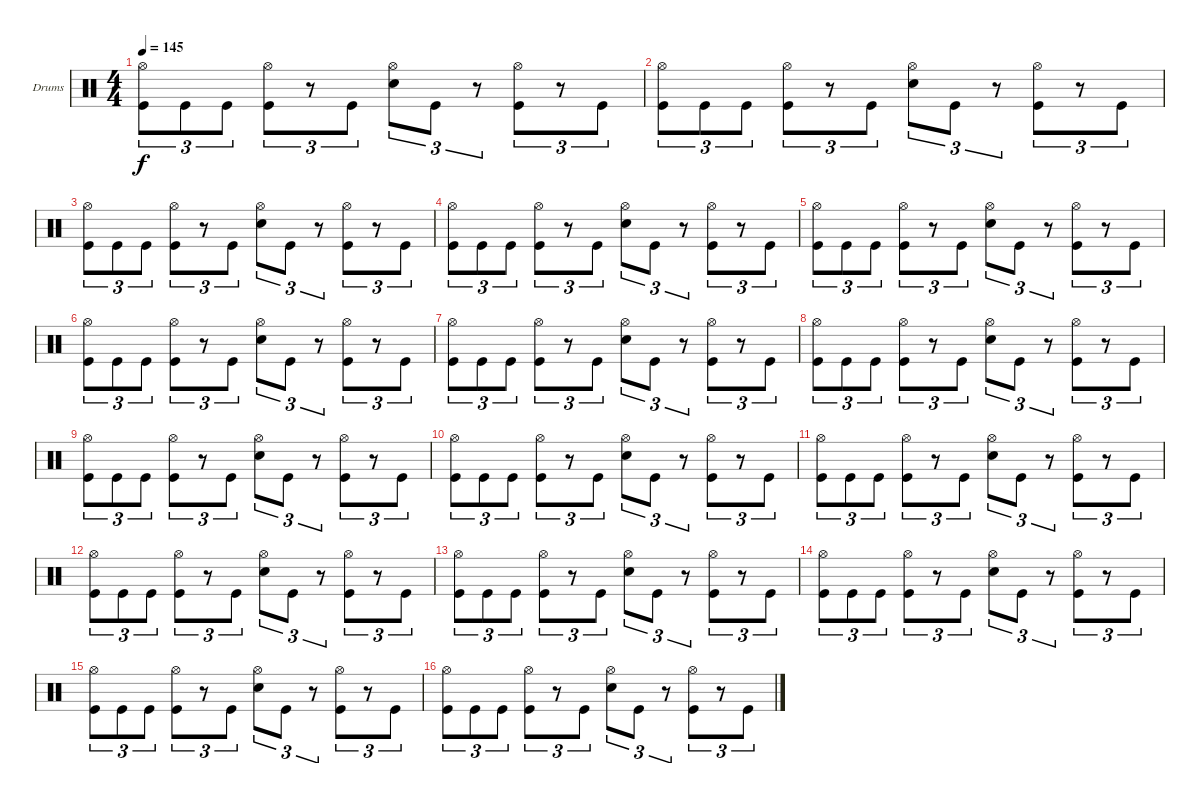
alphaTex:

\bracketExtendMode groupsimilarinstruments
\firstSystemTrackNameOrientation horizontal
\otherSystemsTrackNameOrientation horizontal
\track ("FREDRIK ANDERSSON" "Drums") {instrument percussion}
\staff {score}
\articulation defaults
\ts (4 4)
\tempo 145
\clef neutral
\ks c
("Hi-Hat (open)" "Kick (hit)").8{tu (3 2) dy f} "Kick (hit)".8{tu (3 2)} "Kick (hit)".8{tu (3 2)} ("Hi-Hat (open)" "Kick (hit)").8{tu (3 2)} r.8{tu (3 2)} "Kick (hit)".8{tu (3 2)} ("Hi-Hat (open)" "Snare (hit) 2").8{tu (3 2)} "Kick (hit)".8{tu (3 2)} r.8{tu (3 2)} ("Hi-Hat (open)" "Kick (hit)").8{tu (3 2)} r.8{tu (3 2)} "Kick (hit)".8{tu (3 2)} |
("Hi-Hat (open)" "Kick (hit)").8{tu (3 2)} "Kick (hit)".8{tu (3 2)} "Kick (hit)".8{tu (3 2)} ("Hi-Hat (open)" "Kick (hit)").8{tu (3 2)} r.8{tu (3 2)} "Kick (hit)".8{tu (3 2)} ("Hi-Hat (open)" "Snare (hit) 2").8{tu (3 2)} "Kick (hit)".8{tu (3 2)} r.8{tu (3 2)} ("Hi-Hat (open)" "Kick (hit)").8{tu (3 2)} r.8{tu (3 2)} "Kick (hit)".8{tu (3 2)} |
("Hi-Hat (open)" "Kick (hit)").8{tu (3 2)} "Kick (hit)".8{tu (3 2)} "Kick (hit)".8{tu (3 2)} ("Hi-Hat (open)" "Kick (hit)").8{tu (3 2)} r.8{tu (3 2)} "Kick (hit)".8{tu (3 2)} ("Hi-Hat (open)" "Snare (hit) 2").8{tu (3 2)} "Kick (hit)".8{tu (3 2)} r.8{tu (3 2)} ("Hi-Hat (open)" "Kick (hit)").8{tu (3 2)} r.8{tu (3 2)} "Kick (hit)".8{tu (3 2)} |
("Hi-Hat (open)" "Kick (hit)").8{tu (3 2)} "Kick (hit)".8{tu (3 2)} "Kick (hit)".8{tu (3 2)} ("Hi-Hat (open)" "Kick (hit)").8{tu (3 2)} r.8{tu (3 2)} "Kick (hit)".8{tu (3 2)} ("Hi-Hat (open)" "Snare (hit) 2").8{tu (3 2)} "Kick (hit)".8{tu (3 2)} r.8{tu (3 2)} ("Hi-Hat (open)" "Kick (hit)").8{tu (3 2)} r.8{tu (3 2)} "Kick (hit)".8{tu (3 2)} |
("Hi-Hat (open)" "Kick (hit)").8{tu (3 2)} "Kick (hit)".8{tu (3 2)} "Kick (hit)".8{tu (3 2)} ("Hi-Hat (open)" "Kick (hit)").8{tu (3 2)} r.8{tu (3 2)} "Kick (hit)".8{tu (3 2)} ("Hi-Hat (open)" "Snare (hit) 2").8{tu (3 2)} "Kick (hit)".8{tu (3 2)} r.8{tu (3 2)} ("Hi-Hat (open)" "Kick (hit)").8{tu (3 2)} r.8{tu (3 2)} "Kick (hit)".8{tu (3 2)} |
("Hi-Hat (open)" "Kick (hit)").8{tu (3 2)} "Kick (hit)".8{tu (3 2)} "Kick (hit)".8{tu (3 2)} ("Hi-Hat (open)" "Kick (hit)").8{tu (3 2)} r.8{tu (3 2)} "Kick (hit)".8{tu (3 2)} ("Hi-Hat (open)" "Snare (hit) 2").8{tu (3 2)} "Kick (hit)".8{tu (3 2)} r.8{tu (3 2)} ("Hi-Hat (open)" "Kick (hit)").8{tu (3 2)} r.8{tu (3 2)} "Kick (hit)".8{tu (3 2)} |
("Hi-Hat (open)" "Kick (hit)").8{tu (3 2)} "Kick (hit)".8{tu (3 2)} "Kick (hit)".8{tu (3 2)} ("Hi-Hat (open)" "Kick (hit)").8{tu (3 2)} r.8{tu (3 2)} "Kick (hit)".8{tu (3 2)} ("Hi-Hat (open)" "Snare (hit) 2").8{tu (3 2)} "Kick (hit)".8{tu (3 2)} r.8{tu (3 2)} ("Hi-Hat (open)" "Kick (hit)").8{tu (3 2)} r.8{tu (3 2)} "Kick (hit)".8{tu (3 2)} |
("Hi-Hat (open)" "Kick (hit)").8{tu (3 2)} "Kick (hit)".8{tu (3 2)} "Kick (hit)".8{tu (3 2)} ("Hi-Hat (open)" "Kick (hit)").8{tu (3 2)} r.8{tu (3 2)} "Kick (hit)".8{tu (3 2)} ("Hi-Hat (open)" "Snare (hit) 2").8{tu (3 2)} "Kick (hit)".8{tu (3 2)} r.8{tu (3 2)} ("Hi-Hat (open)" "Kick (hit)").8{tu (3 2)} r.8{tu (3 2)} "Kick (hit)".8{tu (3 2)} |
("Hi-Hat (open)" "Kick (hit)").8{tu (3 2)} "Kick (hit)".8{tu (3 2)} "Kick (hit)".8{tu (3 2)} ("Hi-Hat (open)" "Kick (hit)").8{tu (3 2)} r.8{tu (3 2)} "Kick (hit)".8{tu (3 2)} ("Hi-Hat (open)" "Snare (hit) 2").8{tu (3 2)} "Kick (hit)".8{tu (3 2)} r.8{tu (3 2)} ("Hi-Hat (open)" "Kick (hit)").8{tu (3 2)} r.8{tu (3 2)} "Kick (hit)".8{tu (3 2)} |
("Hi-Hat (open)" "Kick (hit)").8{tu (3 2)} "Kick (hit)".8{tu (3 2)} "Kick (hit)".8{tu (3 2)} ("Hi-Hat (open)" "Kick (hit)").8{tu (3 2)} r.8{tu (3 2)} "Kick (hit)".8{tu (3 2)} ("Hi-Hat (open)" "Snare (hit) 2").8{tu (3 2)} "Kick (hit)".8{tu (3 2)} r.8{tu (3 2)} ("Hi-Hat (open)" "Kick (hit)").8{tu (3 2)} r.8{tu (3 2)} "Kick (hit)".8{tu (3 2)} |
("Hi-Hat (open)" "Kick (hit)").8{tu (3 2)} "Kick (hit)".8{tu (3 2)} "Kick (hit)".8{tu (3 2)} ("Hi-Hat (open)" "Kick (hit)").8{tu (3 2)} r.8{tu (3 2)} "Kick (hit)".8{tu (3 2)} ("Hi-Hat (open)" "Snare (hit) 2").8{tu (3 2)} "Kick (hit)".8{tu (3 2)} r.8{tu (3 2)} ("Hi-Hat (open)" "Kick (hit)").8{tu (3 2)} r.8{tu (3 2)} "Kick (hit)".8{tu (3 2)} |
("Hi-Hat (open)" "Kick (hit)").8{tu (3 2)} "Kick (hit)".8{tu (3 2)} "Kick (hit)".8{tu (3 2)} ("Hi-Hat (open)" "Kick (hit)").8{tu (3 2)} r.8{tu (3 2)} "Kick (hit)".8{tu (3 2)} ("Hi-Hat (open)" "Snare (hit) 2").8{tu (3 2)} "Kick (hit)".8{tu (3 2)} r.8{tu (3 2)} ("Hi-Hat (open)" "Kick (hit)").8{tu (3 2)} r.8{tu (3 2)} "Kick (hit)".8{tu (3 2)} |
("Hi-Hat (open)" "Kick (hit)").8{tu (3 2)} "Kick (hit)".8{tu (3 2)} "Kick (hit)".8{tu (3 2)} ("Hi-Hat (open)" "Kick (hit)").8{tu (3 2)} r.8{tu (3 2)} "Kick (hit)".8{tu (3 2)} ("Hi-Hat (open)" "Snare (hit) 2").8{tu (3 2)} "Kick (hit)".8{tu (3 2)} r.8{tu (3 2)} ("Hi-Hat (open)" "Kick (hit)").8{tu (3 2)} r.8{tu (3 2)} "Kick (hit)".8{tu (3 2)} |
("Hi-Hat (open)" "Kick (hit)").8{tu (3 2)} "Kick (hit)".8{tu (3 2)} "Kick (hit)".8{tu (3 2)} ("Hi-Hat (open)" "Kick (hit)").8{tu (3 2)} r.8{tu (3 2)} "Kick (hit)".8{tu (3 2)} ("Hi-Hat (open)" "Snare (hit) 2").8{tu (3 2)} "Kick (hit)".8{tu (3 2)} r.8{tu (3 2)} ("Hi-Hat (open)" "Kick (hit)").8{tu (3 2)} r.8{tu (3 2)} "Kick (hit)".8{tu (3 2)} |
("Hi-Hat (open)" "Kick (hit)").8{tu (3 2)} "Kick (hit)".8{tu (3 2)} "Kick (hit)".8{tu (3 2)} ("Hi-Hat (open)" "Kick (hit)").8{tu (3 2)} r.8{tu (3 2)} "Kick (hit)".8{tu (3 2)} ("Hi-Hat (open)" "Snare (hit) 2").8{tu (3 2)} "Kick (hit)".8{tu (3 2)} r.8{tu (3 2)} ("Hi-Hat (open)" "Kick (hit)").8{tu (3 2)} r.8{tu (3 2)} "Kick (hit)".8{tu (3 2)} |
("Hi-Hat (open)" "Kick (hit)").8{tu (3 2)} "Kick (hit)".8{tu (3 2)} "Kick (hit)".8{tu (3 2)} ("Hi-Hat (open)" "Kick (hit)").8{tu (3 2)} r.8{tu (3 2)} "Kick (hit)".8{tu (3 2)} ("Hi-Hat (open)" "Snare (hit) 2").8{tu (3 2)} "Kick (hit)".8{tu (3 2)} r.8{tu (3 2)} ("Hi-Hat (open)" "Kick (hit)").8{tu (3 2)} r.8{tu (3 2)} "Kick (hit)".8{tu (3 2)}
